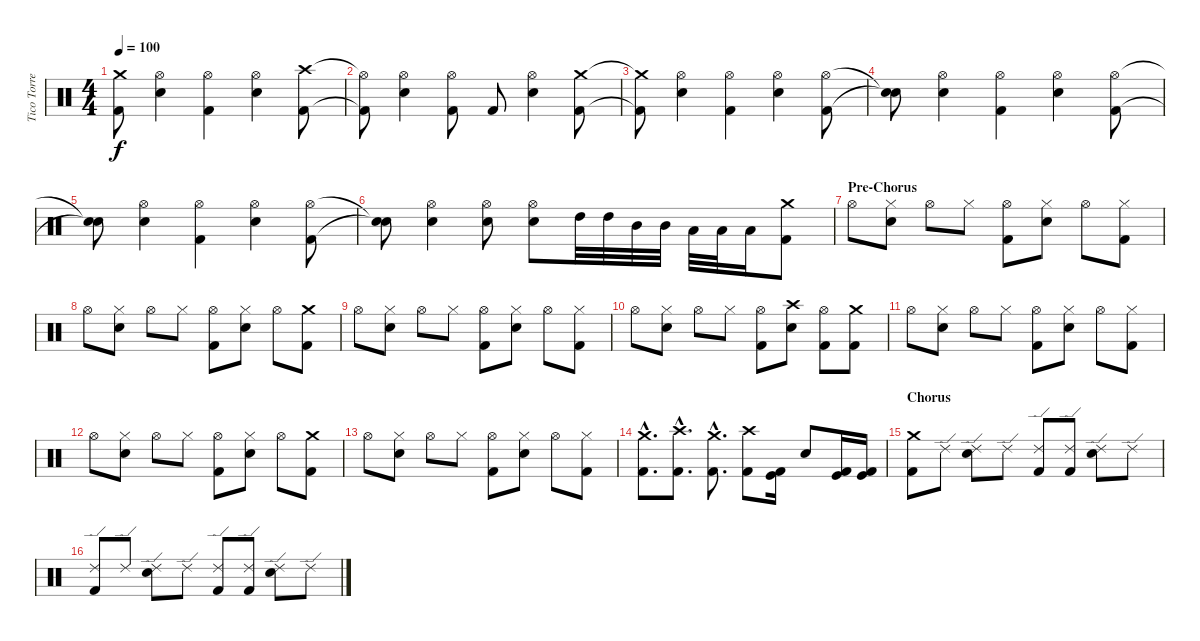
\track ("Tico Torres" "Tico Torre") {instrument percussion}
\staff {score}
\articulation defaults
\ts (4 4)
\tempo 100
\clef neutral
\ks c
("Crash medium (hit)"{t} "Kick (hit) 2"{t}).8{dy f} ("Hi-Hat (open)" "Electric Snare (hit)").4 ("Hi-Hat (open)" "Kick (hit) 2").4 ("Hi-Hat (open)" "Electric Snare (hit)").4 ("Crash high (hit)" "Kick (hit) 2").8 |
("Hi-Hat (open)"{t} "Kick (hit) 2"{t}).8 ("Hi-Hat (open)" "Electric Snare (hit)").4 ("Hi-Hat (open)" "Kick (hit) 2").8 "Kick (hit) 2".8 ("Hi-Hat (open)" "Electric Snare (hit)").4 ("Crash medium (hit)" "Kick (hit) 2").8 |
("Crash medium (hit)"{t} "Kick (hit) 2"{t}).8 ("Hi-Hat (open)" "Electric Snare (hit)").4 ("Hi-Hat (open)" "Kick (hit) 2").4 ("Hi-Hat (open)" "Electric Snare (hit)").4 ("Hi-Hat (open)" "Kick (hit) 2").8 |
("Snare (hit)"{t} "Snare (hit)"{t}).8 ("Hi-Hat (open)" "Electric Snare (hit)").4 ("Hi-Hat (open)" "Kick (hit) 2").4 ("Hi-Hat (open)" "Electric Snare (hit)").4 ("Hi-Hat (open)" "Kick (hit) 2").8 |
("Snare (hit)"{t} "Snare (hit)"{t}).8 ("Hi-Hat (open)" "Electric Snare (hit)").4 ("Hi-Hat (open)" "Kick (hit) 2").4 ("Hi-Hat (open)" "Electric Snare (hit)").4 ("Hi-Hat (open)" "Kick (hit) 2").8 |
("Snare (hit)"{t} "Snare (hit)"{t}).8 ("Hi-Hat (open)" "Electric Snare (hit)").4 ("Hi-Hat (open)" "Electric Snare (hit)").8 ("Hi-Hat (open)" "Electric Snare (hit)").8 "High Tom (hit)".32 "High Tom (hit)".32 "Mid Tom (hit)".32 "Mid Tom (hit)".32 "Low Tom (hit)".32 "Low Tom (hit)".32 "Low Floor Tom (hit)".16 ("Crash medium (hit)" "Kick (hit) 2").8 |
\section ("" "Pre-Chorus")
"Hi-Hat (open)".8 ("Hi-Hat (closed)" "Electric Snare (hit)").8 "Hi-Hat (open)".8 "Hi-Hat (closed)".8 ("Hi-Hat (open)" "Kick (hit) 2").8 ("Hi-Hat (closed)" "Electric Snare (hit)").8 "Hi-Hat (open)".8 ("Hi-Hat (closed)" "Kick (hit) 2").8 |
"Hi-Hat (open)".8 ("Hi-Hat (closed)" "Electric Snare (hit)").8 "Hi-Hat (open)".8 "Hi-Hat (closed)".8 ("Hi-Hat (open)" "Kick (hit) 2").8 ("Hi-Hat (closed)" "Electric Snare (hit)").8 "Hi-Hat (open)".8 ("Crash medium (hit)" "Kick (hit) 2").8 |
"Hi-Hat (open)".8 ("Hi-Hat (closed)" "Electric Snare (hit)").8 "Hi-Hat (open)".8 "Hi-Hat (closed)".8 ("Hi-Hat (open)" "Kick (hit) 2").8 ("Hi-Hat (closed)" "Electric Snare (hit)").8 "Hi-Hat (open)".8 ("Hi-Hat (closed)" "Kick (hit) 2").8 |
"Hi-Hat (open)".8 ("Hi-Hat (closed)" "Electric Snare (hit)").8 "Hi-Hat (open)".8 "Hi-Hat (closed)".8 ("Hi-Hat (open)" "Kick (hit) 2").8 ("Crash high (hit)" "Electric Snare (hit)").8 ("Hi-Hat (open)" "Kick (hit) 2").8 ("Crash medium (hit)" "Kick (hit) 2").8 |
"Hi-Hat (open)".8 ("Hi-Hat (closed)" "Electric Snare (hit)").8 "Hi-Hat (open)".8 "Hi-Hat (closed)".8 ("Hi-Hat (open)" "Kick (hit) 2").8 ("Hi-Hat (closed)" "Electric Snare (hit)").8 "Hi-Hat (open)".8 ("Hi-Hat (closed)" "Kick (hit) 2").8 |
"Hi-Hat (open)".8 ("Hi-Hat (closed)" "Electric Snare (hit)").8 "Hi-Hat (open)".8 "Hi-Hat (closed)".8 ("Hi-Hat (open)" "Kick (hit) 2").8 ("Hi-Hat (closed)" "Electric Snare (hit)").8 "Hi-Hat (open)".8 ("Crash medium (hit)" "Kick (hit) 2").8 |
"Hi-Hat (open)".8 ("Hi-Hat (closed)" "Electric Snare (hit)").8 "Hi-Hat (open)".8 "Hi-Hat (closed)".8 ("Hi-Hat (open)" "Kick (hit) 2").8 ("Hi-Hat (closed)" "Electric Snare (hit)").8 "Hi-Hat (open)".8 ("Hi-Hat (closed)" "Kick (hit) 2").8 |
("Crash medium (hit)"{hac} "Kick (hit) 2"{hac}).8{d} ("Crash high (hit)"{hac} "Kick (hit) 2"{hac}).8{d} ("Crash medium (hit)"{hac} "Kick (hit) 2"{hac}).8{d} ("Crash high (hit)" "Kick (hit) 2").8 ("Kick (hit)" "Kick (hit) 2").16 "Electric Snare (hit)".8 ("Kick (hit)" "Kick (hit) 2").16 ("Kick (hit)" "Kick (hit) 2").16 |
\section ("" "Chorus")
("Crash medium (hit)" "Kick (hit) 2").8 "Ride (edge) 2".8 ("Ride (edge) 2" "Snare (hit) 2").8 "Ride (edge) 2".8 ("Ride (edge) 2" "Kick (hit) 2").8 ("Ride (edge) 2" "Kick (hit) 2").8 ("Ride (edge) 2" "Snare (hit) 2").8 "Ride (edge) 2".8 |
("Ride (edge) 2" "Kick (hit) 2").8 "Ride (edge) 2".8 ("Ride (edge) 2" "Snare (hit) 2").8 "Ride (edge) 2".8 ("Ride (edge) 2" "Kick (hit) 2").8 ("Ride (edge) 2" "Kick (hit) 2").8 ("Ride (edge) 2" "Snare (hit) 2").8 "Ride (edge) 2".8
